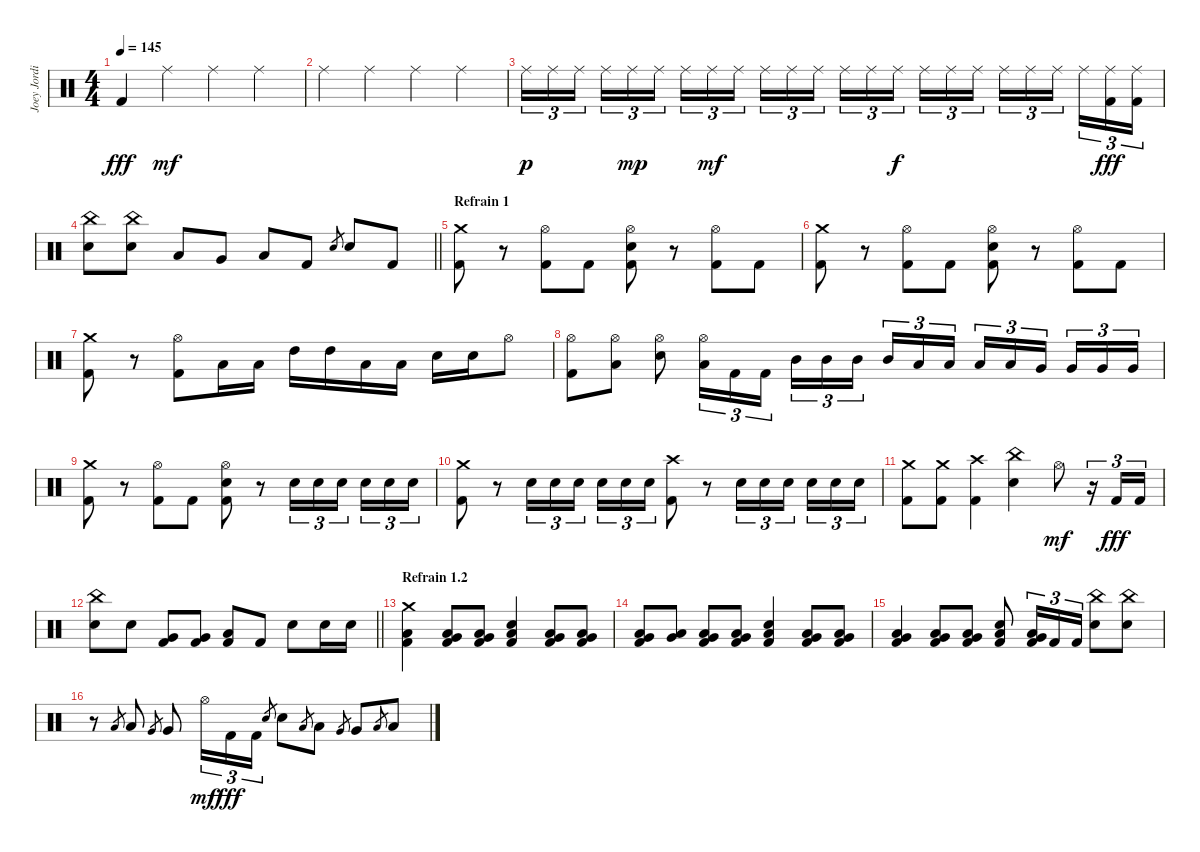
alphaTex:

\track ("Joey Jordison" "Joey Jordi") {instrument percussion}
\staff {score}
\articulation defaults
\ts (4 4)
\tempo 145
\clef neutral
\ks c "Kick (hit) 2".4{dy fff} "Ride (middle)".4{dy mf} "Ride (middle)".4 "Ride (middle)".4
|
"Ride (middle)".4 "Ride (middle)".4 "Ride (middle)".4 "Ride (middle)".4 |
"Ride (middle)".16{tu (3 2) dy p} "Ride (middle)".16{tu (3 2)} "Ride (middle)".16{tu (3 2) beam splitsecondary} "Ride (middle)".16{tu (3 2)} "Ride (middle)".16{tu (3 2) dy mp} "Ride (middle)".16{tu (3 2)} "Ride (middle)".16{tu (3 2)} "Ride (middle)".16{tu (3 2) dy mf} "Ride (middle)".16{tu (3 2) beam splitsecondary} "Ride (middle)".16{tu (3 2)} "Ride (middle)".16{tu (3 2)} "Ride (middle)".16{tu (3 2)} "Ride (middle)".16{tu (3 2)} "Ride (middle)".16{tu (3 2)} "Ride (middle)".16{tu (3 2) dy f beam splitsecondary} "Ride (middle)".16{tu (3 2)} "Ride (middle)".16{tu (3 2)} "Ride (middle)".16{tu (3 2)} "Ride (middle)".16{tu (3 2)} "Ride (middle)".16{tu (3 2)} "Ride (middle)".16{tu (3 2) beam splitsecondary} "Ride (middle)".16{tu (3 2)} ("Ride (middle)" "Kick (hit) 2").16{tu (3 2) dy fff} ("Ride (middle)" "Kick (hit) 2").16{tu (3 2)} |
\barLineRight lightlight
("China (hit)" "Electric Snare (hit)").8 ("China (hit)" "Electric Snare (hit)").8 "Low Tom (hit)".8 "Very Low Tom (hit)".8 "Low Floor Tom (hit)".8 "Kick (hit) 2".8 "Electric Snare (hit)".8{gr} "Electric Snare (hit)".8 "Kick (hit) 2".8 |
\section ("" "Refrain 1")
("Crash medium (hit)" "Kick (hit) 2").8 r.8 ("Hi-Hat (open)" "Kick (hit) 2").8 "Kick (hit) 2".8 ("Hi-Hat (open)" "Electric Snare (hit)" "Kick (hit) 2").8 r.8 ("Hi-Hat (open)" "Kick (hit) 2").8 "Kick (hit) 2".8 |
("Crash medium (hit)" "Kick (hit) 2").8 r.8 ("Hi-Hat (open)" "Kick (hit) 2").8 "Kick (hit) 2".8 ("Hi-Hat (open)" "Electric Snare (hit)" "Kick (hit) 2").8 r.8 ("Hi-Hat (open)" "Kick (hit) 2").8 "Kick (hit) 2".8 |
("Crash medium (hit)" "Kick (hit) 2").8 r.8 ("Hi-Hat (open)" "Kick (hit) 2").8 "Low Tom (hit)".16 "Low Tom (hit)".16 "High Tom (hit)".16 "High Tom (hit)".16 "Low Tom (hit)".16 "Low Tom (hit)".16 "Electric Snare (hit)".16 "Electric Snare (hit)".16 "Hi-Hat (open)".8 |
("Hi-Hat (open)" "Kick (hit) 2").8 ("Hi-Hat (open)" "Low Tom (hit)").8 ("Hi-Hat (open)" "Electric Snare (hit)").8 ("Hi-Hat (open)" "Low Floor Tom (hit)").16{tu (3 2)} "Kick (hit) 2".16{tu (3 2)} "Kick (hit) 2".16{tu (3 2)} "Mid Tom (hit)".16{tu (3 2)} "Mid Tom (hit)".16{tu (3 2)} "Mid Tom (hit)".16{tu (3 2) beam splitsecondary} "Mid Tom (hit)".16{tu (3 2)} "Low Tom (hit)".16{tu (3 2)} "Low Tom (hit)".16{tu (3 2)} "Low Tom (hit)".16{tu (3 2)} "Low Tom (hit)".16{tu (3 2)} "Very Low Tom (hit)".16{tu (3 2) beam splitsecondary} "Very Low Tom (hit)".16{tu (3 2)} "Very Low Tom (hit)".16{tu (3 2)} "Very Low Tom (hit)".16{tu (3 2)} |
("Crash medium (hit)" "Kick (hit) 2").8 r.8 ("Hi-Hat (open)" "Kick (hit) 2").8 "Kick (hit) 2".8 ("Hi-Hat (open)" "Electric Snare (hit)" "Kick (hit) 2").8 r.8 "Electric Snare (hit)".16{tu (3 2)} "Electric Snare (hit)".16{tu (3 2)} "Electric Snare (hit)".16{tu (3 2) beam splitsecondary} "Electric Snare (hit)".16{tu (3 2)} "Electric Snare (hit)".16{tu (3 2)} "Electric Snare (hit)".16{tu (3 2)} |
("Crash medium (hit)" "Kick (hit) 2").8 r.8 "Electric Snare (hit)".16{tu (3 2)} "Electric Snare (hit)".16{tu (3 2)} "Electric Snare (hit)".16{tu (3 2) beam splitsecondary} "Electric Snare (hit)".16{tu (3 2)} "Electric Snare (hit)".16{tu (3 2)} "Electric Snare (hit)".16{tu (3 2)} ("Crash high (hit)" "Kick (hit) 2").8 r.8 "Electric Snare (hit)".16{tu (3 2)} "Electric Snare (hit)".16{tu (3 2)} "Electric Snare (hit)".16{tu (3 2) beam splitsecondary} "Electric Snare (hit)".16{tu (3 2)} "Electric Snare (hit)".16{tu (3 2)} "Electric Snare (hit)".16{tu (3 2)} |
("Crash medium (hit)" "Kick (hit) 2").8 ("Crash medium (hit)" "Kick (hit) 2").8 ("Crash high (hit)" "Kick (hit) 2").4 ("China (hit)" "Electric Snare (hit)").4 "Hi-Hat (open)".8{dy mf} r.16{tu (3 2)} "Kick (hit) 2".16{tu (3 2) dy fff} "Kick (hit) 2".16{tu (3 2)} |
\barLineRight lightlight
("China (hit)" "Electric Snare (hit)").8 "Electric Snare (hit)".8 ("Very Low Tom (hit)" "Kick (hit) 2").8 ("Very Low Tom (hit)" "Kick (hit) 2").8 ("Low Floor Tom (hit)" "Kick (hit) 2").8 "Kick (hit) 2".8 "Electric Snare (hit)".8 "Electric Snare (hit)".16 "Electric Snare (hit)".16 |
\section ("" "Refrain 1.2")
("Crash medium (hit)" "Low Floor Tom (hit)" "Kick (hit) 2").4 ("Very Low Tom (hit)" "Low Floor Tom (hit)" "Kick (hit) 2").8 ("Very Low Tom (hit)" "Low Floor Tom (hit)" "Kick (hit) 2").8 ("Electric Snare (hit)" "Low Floor Tom (hit)" "Kick (hit) 2").4 ("Very Low Tom (hit)" "Low Floor Tom (hit)" "Kick (hit) 2").8 ("Very Low Tom (hit)" "Low Floor Tom (hit)" "Kick (hit) 2").8 |
("Very Low Tom (hit)" "Low Floor Tom (hit)" "Kick (hit) 2").8 ("Very Low Tom (hit)" "Low Floor Tom (hit)").8 ("Very Low Tom (hit)" "Low Floor Tom (hit)" "Kick (hit) 2").8 ("Very Low Tom (hit)" "Low Floor Tom (hit)" "Kick (hit) 2").8 ("Electric Snare (hit)" "Low Floor Tom (hit)" "Kick (hit) 2").4 ("Very Low Tom (hit)" "Low Floor Tom (hit)" "Kick (hit) 2").8 ("Very Low Tom (hit)" "Low Floor Tom (hit)" "Kick (hit) 2").8 |
("Very Low Tom (hit)" "Low Floor Tom (hit)" "Kick (hit) 2").4 ("Very Low Tom (hit)" "Low Floor Tom (hit)" "Kick (hit) 2").8 ("Very Low Tom (hit)" "Low Floor Tom (hit)" "Kick (hit) 2").8 ("Electric Snare (hit)" "Low Floor Tom (hit)" "Kick (hit) 2").8 ("Very Low Tom (hit)" "Low Floor Tom (hit)" "Kick (hit) 2").16{tu (3 2)} "Kick (hit) 2".16{tu (3 2)} "Kick (hit) 2".16{tu (3 2)} ("China (hit)" "Electric Snare (hit)").8 ("China (hit)" "Electric Snare (hit)").8 |
r.8 "Low Tom (hit)".8{gr} "Low Tom (hit)".8 "Very Low Tom (hit)".8{gr} "Very Low Tom (hit)".8 "Hi-Hat (open)".16{tu (3 2) dy mf} "Kick (hit) 2".16{tu (3 2) dy fff} "Kick (hit) 2".16{tu (3 2)} "Electric Snare (hit)".8{gr} "Electric Snare (hit)".8 "Low Tom (hit)".8{gr} "Low Tom (hit)".8 "Very Low Tom (hit)".8{gr} "Very Low Tom (hit)".8 "Low Floor Tom (hit)".8{gr} "Low Floor Tom (hit)".8
